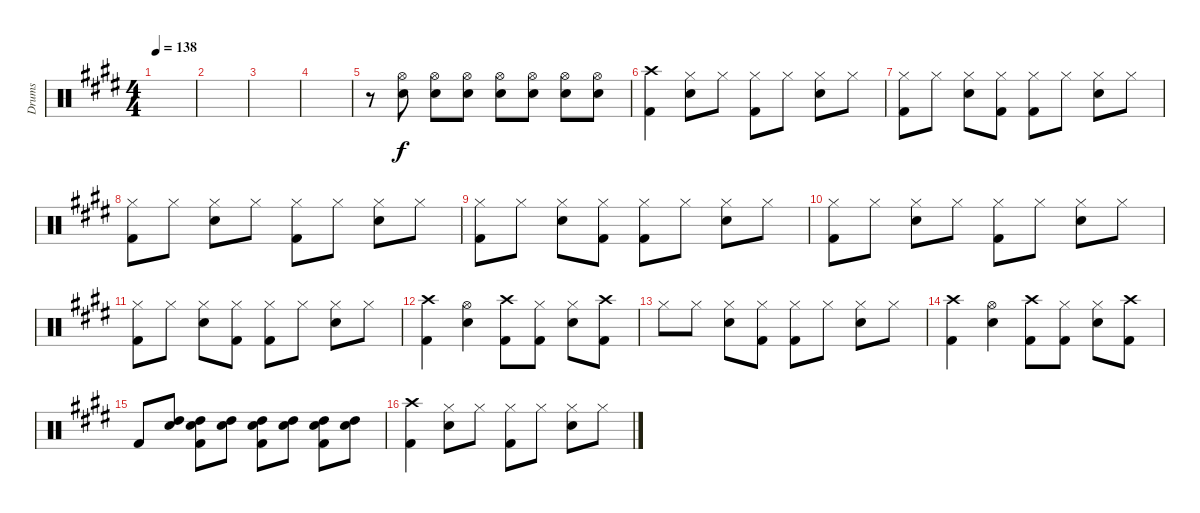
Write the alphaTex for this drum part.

\track ("Drums" "Drums") {instrument percussion}
\staff {score}
\articulation defaults
\ts (4 4)
\tempo 138
\clef neutral
\ks e
|
|
|
|
r.8 ("Hi-Hat (open)" "Snare (hit) 2").8 ("Hi-Hat (open)" "Snare (hit) 2").8 ("Hi-Hat (open)" "Snare (hit) 2").8 ("Hi-Hat (open)" "Snare (hit) 2").8 ("Hi-Hat (open)" "Snare (hit) 2").8 ("Hi-Hat (open)" "Snare (hit) 2").8 ("Hi-Hat (open)" "Snare (hit) 2").8 |
("Crash high (hit)" "Kick (hit) 2").4 ("Hi-Hat (closed)" "Snare (hit) 2").8 "Hi-Hat (closed)".8 ("Hi-Hat (closed)" "Kick (hit) 2").8 "Hi-Hat (closed)".8 ("Hi-Hat (closed)" "Snare (hit) 2").8 "Hi-Hat (closed)".8 |
("Hi-Hat (closed)" "Kick (hit) 2").8 "Hi-Hat (closed)".8 ("Hi-Hat (closed)" "Snare (hit) 2").8 ("Hi-Hat (closed)" "Kick (hit) 2").8 ("Hi-Hat (closed)" "Kick (hit) 2").8 "Hi-Hat (closed)".8 ("Hi-Hat (closed)" "Snare (hit) 2").8 "Hi-Hat (closed)".8 |
("Hi-Hat (closed)" "Kick (hit) 2").8 "Hi-Hat (closed)".8 ("Hi-Hat (closed)" "Snare (hit) 2").8 "Hi-Hat (closed)".8 ("Hi-Hat (closed)" "Kick (hit) 2").8 "Hi-Hat (closed)".8 ("Hi-Hat (closed)" "Snare (hit) 2").8 "Hi-Hat (closed)".8 |
("Hi-Hat (closed)" "Kick (hit) 2").8 "Hi-Hat (closed)".8 ("Hi-Hat (closed)" "Snare (hit) 2").8 ("Hi-Hat (closed)" "Kick (hit) 2").8 ("Hi-Hat (closed)" "Kick (hit) 2").8 "Hi-Hat (closed)".8 ("Hi-Hat (closed)" "Snare (hit) 2").8 "Hi-Hat (closed)".8 |
("Hi-Hat (closed)" "Kick (hit) 2").8 "Hi-Hat (closed)".8 ("Hi-Hat (closed)" "Snare (hit) 2").8 "Hi-Hat (closed)".8 ("Hi-Hat (closed)" "Kick (hit) 2").8 "Hi-Hat (closed)".8 ("Hi-Hat (closed)" "Snare (hit) 2").8 "Hi-Hat (closed)".8 |
("Hi-Hat (closed)" "Kick (hit) 2").8 "Hi-Hat (closed)".8 ("Hi-Hat (closed)" "Snare (hit) 2").8 ("Hi-Hat (closed)" "Kick (hit) 2").8 ("Hi-Hat (closed)" "Kick (hit) 2").8 "Hi-Hat (closed)".8 ("Hi-Hat (closed)" "Snare (hit) 2").8 "Hi-Hat (closed)".8 |
("Crash high (hit)" "Kick (hit) 2").4 ("Hi-Hat (open)" "Snare (hit) 2").4 ("Crash high (hit)" "Kick (hit) 2").8 ("Hi-Hat (closed)" "Kick (hit) 2").8 ("Hi-Hat (closed)" "Snare (hit) 2").8 ("Crash high (hit)" "Kick (hit) 2").8 |
"Hi-Hat (closed)".8 "Hi-Hat (closed)".8 ("Hi-Hat (closed)" "Snare (hit) 2").8 ("Hi-Hat (closed)" "Kick (hit) 2").8 ("Hi-Hat (closed)" "Kick (hit) 2").8 "Hi-Hat (closed)".8 ("Hi-Hat (closed)" "Snare (hit) 2").8 "Hi-Hat (closed)".8 |
("Crash high (hit)" "Kick (hit) 2").4 ("Hi-Hat (open)" "Snare (hit) 2").4 ("Crash high (hit)" "Kick (hit) 2").8 ("Hi-Hat (closed)" "Kick (hit) 2").8 ("Hi-Hat (closed)" "Snare (hit) 2").8 ("Crash high (hit)" "Kick (hit) 2").8 |
"Kick (hit) 2".8 ("High Tom (hit)" "Snare (hit) 2").8 ("High Tom (hit)" "Snare (hit) 2" "Kick (hit) 2").8 ("High Tom (hit)" "Snare (hit) 2").8 ("High Tom (hit)" "Snare (hit) 2" "Kick (hit) 2").8 ("High Tom (hit)" "Snare (hit) 2").8 ("High Tom (hit)" "Snare (hit) 2" "Kick (hit) 2").8 ("High Tom (hit)" "Snare (hit) 2").8 |
("Crash high (hit)" "Kick (hit) 2").4 ("Hi-Hat (closed)" "Snare (hit) 2").8 "Hi-Hat (closed)".8 ("Hi-Hat (closed)" "Kick (hit) 2").8 "Hi-Hat (closed)".8 ("Hi-Hat (closed)" "Snare (hit) 2").8 "Hi-Hat (closed)".8
